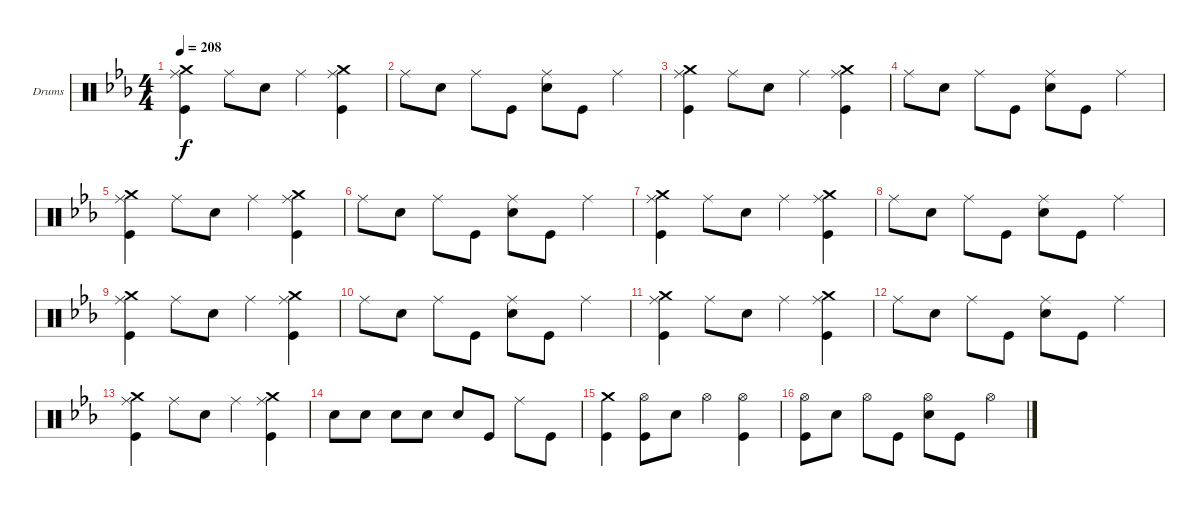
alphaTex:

\defaultSystemsLayout 4
\bracketExtendMode groupsimilarinstruments
\firstSystemTrackNameOrientation horizontal
\otherSystemsTrackNameOrientation horizontal
\track ("Drumkit" "Drums") {instrument percussion}
\staff {score}
\articulation defaults
\ts (4 4)
\tempo 208
\clef neutral
\ks eb
("Crash medium (hit)" "Ride (middle)" "Kick (hit)").4{dy f} "Ride (middle)".8 "Snare (hit) 2".8 "Ride (middle)".4 ("Crash medium (hit)" "Ride (middle)" "Kick (hit)").4 |
"Ride (middle)".8 "Snare (hit) 2".8 "Ride (middle)".8 "Kick (hit)".8 ("Ride (middle)" "Snare (hit) 2").8 "Kick (hit)".8 "Ride (middle)".4 |
("Crash medium (hit)" "Ride (middle)" "Kick (hit)").4 "Ride (middle)".8 "Snare (hit) 2".8 "Ride (middle)".4 ("Crash medium (hit)" "Ride (middle)" "Kick (hit)").4 |
"Ride (middle)".8 "Snare (hit) 2".8 "Ride (middle)".8 "Kick (hit)".8 ("Ride (middle)" "Snare (hit) 2").8 "Kick (hit)".8 "Ride (middle)".4 |
("Crash medium (hit)" "Ride (middle)" "Kick (hit)").4 "Ride (middle)".8 "Snare (hit) 2".8 "Ride (middle)".4 ("Crash medium (hit)" "Ride (middle)" "Kick (hit)").4 |
"Ride (middle)".8 "Snare (hit) 2".8 "Ride (middle)".8 "Kick (hit)".8 ("Ride (middle)" "Snare (hit) 2").8 "Kick (hit)".8 "Ride (middle)".4 |
("Crash medium (hit)" "Ride (middle)" "Kick (hit)").4 "Ride (middle)".8 "Snare (hit) 2".8 "Ride (middle)".4 ("Crash medium (hit)" "Ride (middle)" "Kick (hit)").4 |
"Ride (middle)".8 "Snare (hit) 2".8 "Ride (middle)".8 "Kick (hit)".8 ("Ride (middle)" "Snare (hit) 2").8 "Kick (hit)".8 "Ride (middle)".4 |
("Crash medium (hit)" "Ride (middle)" "Kick (hit)").4 "Ride (middle)".8 "Snare (hit) 2".8 "Ride (middle)".4 ("Crash medium (hit)" "Ride (middle)" "Kick (hit)").4 |
"Ride (middle)".8 "Snare (hit) 2".8 "Ride (middle)".8 "Kick (hit)".8 ("Ride (middle)" "Snare (hit) 2").8 "Kick (hit)".8 "Ride (middle)".4 |
("Crash medium (hit)" "Ride (middle)" "Kick (hit)").4 "Ride (middle)".8 "Snare (hit) 2".8 "Ride (middle)".4 ("Crash medium (hit)" "Ride (middle)" "Kick (hit)").4 |
"Ride (middle)".8 "Snare (hit) 2".8 "Ride (middle)".8 "Kick (hit)".8 ("Ride (middle)" "Snare (hit) 2").8 "Kick (hit)".8 "Ride (middle)".4 |
("Crash medium (hit)" "Ride (middle)" "Kick (hit)").4 "Ride (middle)".8 "Snare (hit) 2".8 "Ride (middle)".4 ("Crash medium (hit)" "Ride (middle)" "Kick (hit)").4 |
"Snare (hit) 2".8 "Snare (hit) 2".8 "Snare (hit) 2".8 "Snare (hit) 2".8 "Snare (hit) 2".8 "Kick (hit)".8 "Ride (middle)".8 "Kick (hit)".8 |
("Crash medium (hit)" "Kick (hit)").4 ("Hi-Hat (open)" "Kick (hit)").8 "Snare (hit) 2".8 "Hi-Hat (open)".4 ("Hi-Hat (open)" "Kick (hit)").4 |
("Hi-Hat (open)" "Kick (hit)").8 "Snare (hit) 2".8 "Hi-Hat (open)".8 "Kick (hit)".8 ("Hi-Hat (open)" "Snare (hit) 2").8 "Kick (hit)".8 "Hi-Hat (open)".4
